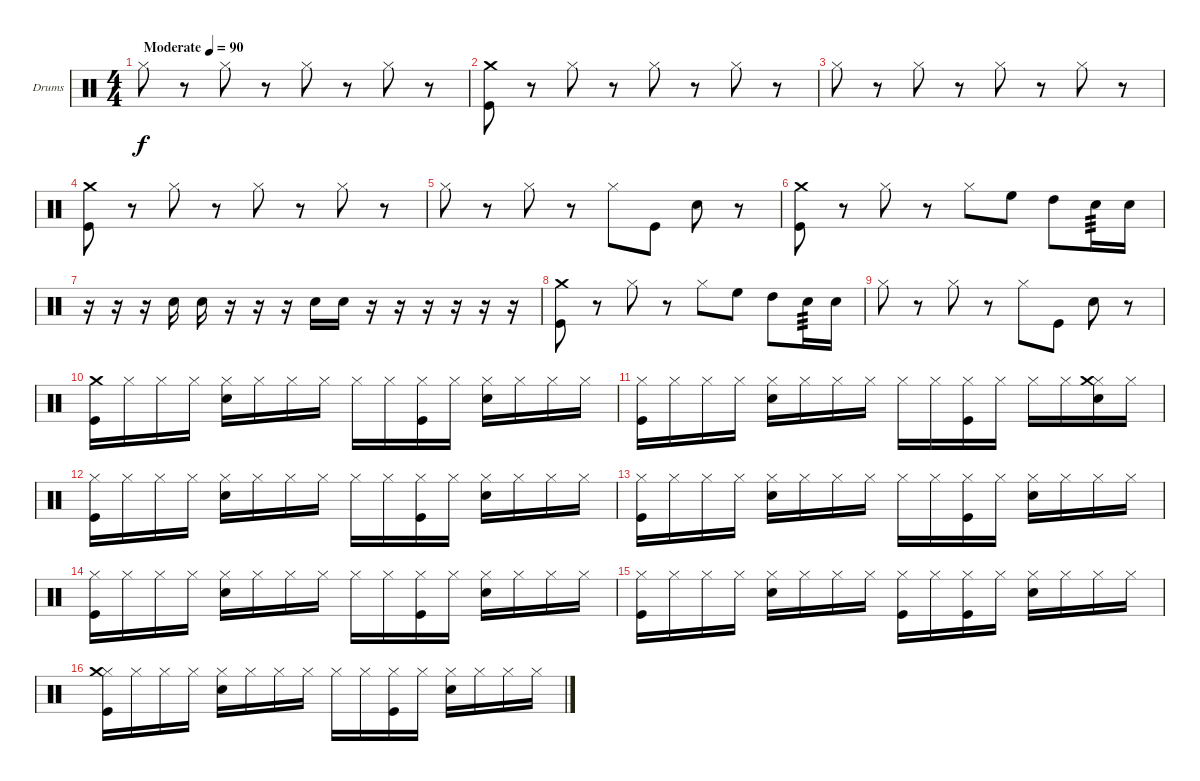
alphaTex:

\bracketExtendMode groupsimilarinstruments
\firstSystemTrackNameOrientation horizontal
\otherSystemsTrackNameOrientation horizontal
\track ("Drumkit" "Drums") {instrument percussion}
\staff {score}
\articulation defaults
\ts (4 4)
\beaming (8 2 2 2 2)
\tempo (90 "Moderate")
\clef neutral
\ks c "Hi-Hat (closed)".8{dy f}
r.8 "Hi-Hat (closed)".8 r.8 "Hi-Hat (closed)".8 r.8 "Hi-Hat (closed)".8 r.8 |
("Kick (hit)" "Crash medium (hit)").8 r.8 "Hi-Hat (closed)".8 r.8 "Hi-Hat (closed)".8 r.8 "Hi-Hat (closed)".8 r.8 |
"Hi-Hat (closed)".8 r.8 "Hi-Hat (closed)".8 r.8 "Hi-Hat (closed)".8 r.8 "Hi-Hat (closed)".8 r.8 |
("Kick (hit)" "Crash medium (hit)").8 r.8 "Hi-Hat (closed)".8 r.8 "Hi-Hat (closed)".8 r.8 "Hi-Hat (closed)".8 r.8 |
"Hi-Hat (closed)".8 r.8 "Hi-Hat (closed)".8 r.8 "Hi-Hat (closed)".8 "Kick (hit)".8 "Snare (hit) 2".8 r.8 |
("Kick (hit)" "Crash medium (hit)").8 r.8 "Hi-Hat (closed)".8 r.8 "Hi-Hat (closed)".8 "High Floor Tom (hit)".8 "High Tom (hit)".8 "Snare (hit) 2".16{tp 3} "Snare (hit) 2".16 |
r.16 r.16 r.16 "Snare (hit) 2".16 "Snare (hit) 2".16 r.16 r.16 r.16 "Snare (hit) 2".16 "Snare (hit) 2".16 r.16 r.16 r.16 r.16 r.16 r.16 |
("Kick (hit)" "Crash medium (hit)").8 r.8 "Hi-Hat (closed)".8 r.8 "Hi-Hat (closed)".8 "High Floor Tom (hit)".8 "High Tom (hit)".8 "Snare (hit) 2".16{tp 3} "Snare (hit) 2".16 |
"Hi-Hat (closed)".8 r.8 "Hi-Hat (closed)".8 r.8 "Hi-Hat (closed)".8 "Kick (hit)".8 "Snare (hit) 2".8 r.8 |
("Kick (hit)" "Crash medium (hit)").16 "Hi-Hat (closed)".16 "Hi-Hat (closed)".16 "Hi-Hat (closed)".16 ("Snare (hit) 2" "Hi-Hat (closed)").16 "Hi-Hat (closed)".16 "Hi-Hat (closed)".16 "Hi-Hat (closed)".16 "Hi-Hat (closed)".16 "Hi-Hat (closed)".16 ("Kick (hit)" "Hi-Hat (closed)").16 "Hi-Hat (closed)".16 ("Snare (hit) 2" "Hi-Hat (closed)").16 "Hi-Hat (closed)".16 "Hi-Hat (closed)".16 "Hi-Hat (closed)".16 |
("Kick (hit)" "Hi-Hat (closed)").16 "Hi-Hat (closed)".16 "Hi-Hat (closed)".16 "Hi-Hat (closed)".16 ("Snare (hit) 2" "Hi-Hat (closed)").16 "Hi-Hat (closed)".16 "Hi-Hat (closed)".16 "Hi-Hat (closed)".16 "Hi-Hat (closed)".16 "Hi-Hat (closed)".16 ("Kick (hit)" "Hi-Hat (closed)").16 "Hi-Hat (closed)".16 "Hi-Hat (closed)".16 "Hi-Hat (closed)".16 ("Snare (hit) 2" "Hi-Hat (closed)" "Crash medium (hit)").16 "Hi-Hat (closed)".16 |
("Kick (hit)" "Hi-Hat (closed)").16 "Hi-Hat (closed)".16 "Hi-Hat (closed)".16 "Hi-Hat (closed)".16 ("Snare (hit) 2" "Hi-Hat (closed)").16 "Hi-Hat (closed)".16 "Hi-Hat (closed)".16 "Hi-Hat (closed)".16 "Hi-Hat (closed)".16 "Hi-Hat (closed)".16 ("Kick (hit)" "Hi-Hat (closed)").16 "Hi-Hat (closed)".16 ("Snare (hit) 2" "Hi-Hat (closed)").16 "Hi-Hat (closed)".16 "Hi-Hat (closed)".16 "Hi-Hat (closed)".16 |
("Kick (hit)" "Hi-Hat (closed)").16 "Hi-Hat (closed)".16 "Hi-Hat (closed)".16 "Hi-Hat (closed)".16 ("Snare (hit) 2" "Hi-Hat (closed)").16 "Hi-Hat (closed)".16 "Hi-Hat (closed)".16 "Hi-Hat (closed)".16 "Hi-Hat (closed)".16 "Hi-Hat (closed)".16 ("Kick (hit)" "Hi-Hat (closed)").16 "Hi-Hat (closed)".16 ("Snare (hit) 2" "Hi-Hat (closed)").16 "Hi-Hat (closed)".16 "Hi-Hat (closed)".16 "Hi-Hat (closed)".16 |
("Kick (hit)" "Hi-Hat (closed)").16 "Hi-Hat (closed)".16 "Hi-Hat (closed)".16 "Hi-Hat (closed)".16 ("Snare (hit) 2" "Hi-Hat (closed)").16 "Hi-Hat (closed)".16 "Hi-Hat (closed)".16 "Hi-Hat (closed)".16 "Hi-Hat (closed)".16 "Hi-Hat (closed)".16 ("Kick (hit)" "Hi-Hat (closed)").16 "Hi-Hat (closed)".16 ("Snare (hit) 2" "Hi-Hat (closed)").16 "Hi-Hat (closed)".16 "Hi-Hat (closed)".16 "Hi-Hat (closed)".16 |
("Kick (hit)" "Hi-Hat (closed)").16 "Hi-Hat (closed)".16 "Hi-Hat (closed)".16 "Hi-Hat (closed)".16 ("Snare (hit) 2" "Hi-Hat (closed)").16 "Hi-Hat (closed)".16 "Hi-Hat (closed)".16 "Hi-Hat (closed)".16 ("Kick (hit)" "Hi-Hat (closed)").16 "Hi-Hat (closed)".16 ("Kick (hit)" "Hi-Hat (closed)").16 "Hi-Hat (closed)".16 ("Snare (hit) 2" "Hi-Hat (closed)").16 "Hi-Hat (closed)".16 "Hi-Hat (closed)".16 "Hi-Hat (closed)".16 |
("Kick (hit)" "Hi-Hat (closed)" "Crash medium (hit)").16 "Hi-Hat (closed)".16 "Hi-Hat (closed)".16 "Hi-Hat (closed)".16 ("Snare (hit) 2" "Hi-Hat (closed)").16 "Hi-Hat (closed)".16 "Hi-Hat (closed)".16 "Hi-Hat (closed)".16 "Hi-Hat (closed)".16 "Hi-Hat (closed)".16 ("Kick (hit)" "Hi-Hat (closed)").16 "Hi-Hat (closed)".16 ("Snare (hit) 2" "Hi-Hat (closed)").16 "Hi-Hat (closed)".16 "Hi-Hat (closed)".16 "Hi-Hat (closed)".16
